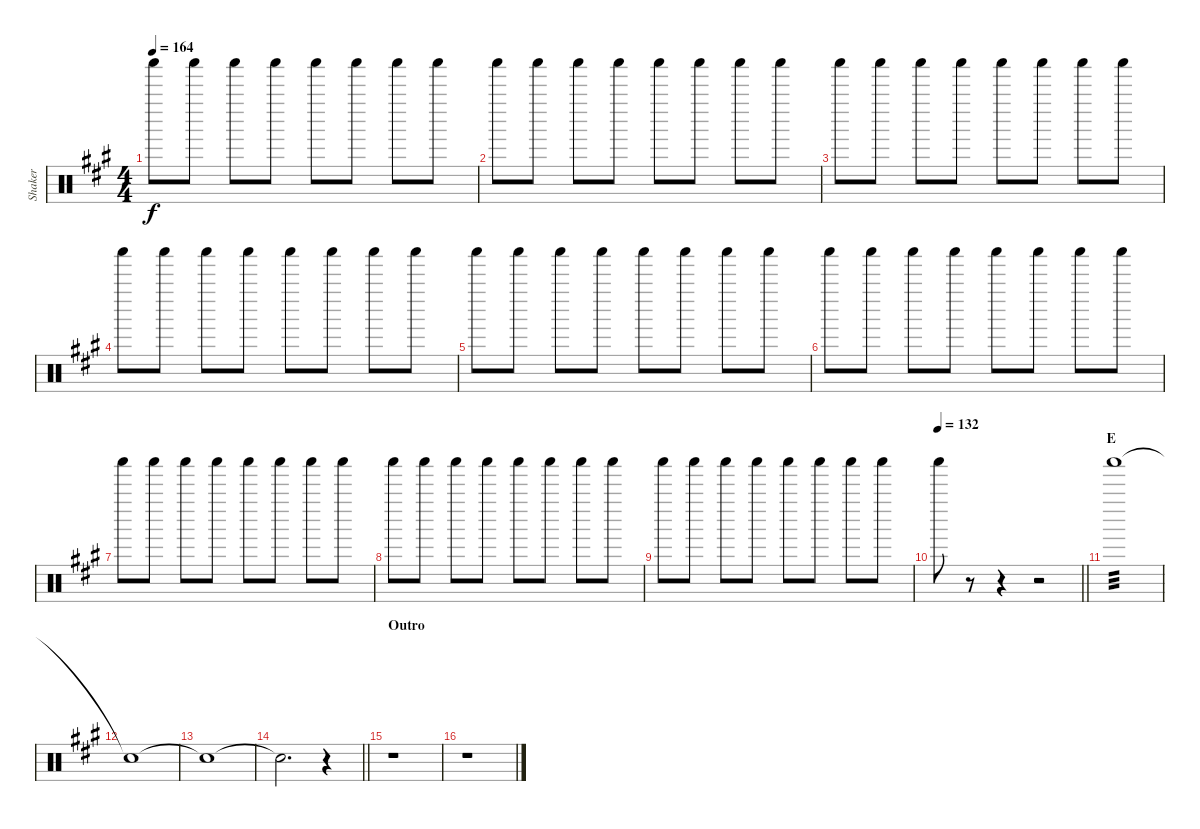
\track ("Shaker" "Shaker") {instrument percussion}
\staff {score}
\articulation defaults
\ts (4 4)
\tempo 164
\clef neutral
\ks a "Shaker (hit)".8{dy f} "Shaker (hit)".8 "Shaker (hit)".8 "Shaker (hit)".8 "Shaker (hit)".8 "Shaker (hit)".8 "Shaker (hit)".8 "Shaker (hit)".8
|
"Shaker (hit)".8 "Shaker (hit)".8 "Shaker (hit)".8 "Shaker (hit)".8 "Shaker (hit)".8 "Shaker (hit)".8 "Shaker (hit)".8 "Shaker (hit)".8 |
"Shaker (hit)".8 "Shaker (hit)".8 "Shaker (hit)".8 "Shaker (hit)".8 "Shaker (hit)".8 "Shaker (hit)".8 "Shaker (hit)".8 "Shaker (hit)".8 |
"Shaker (hit)".8 "Shaker (hit)".8 "Shaker (hit)".8 "Shaker (hit)".8 "Shaker (hit)".8 "Shaker (hit)".8 "Shaker (hit)".8 "Shaker (hit)".8 |
"Shaker (hit)".8 "Shaker (hit)".8 "Shaker (hit)".8 "Shaker (hit)".8 "Shaker (hit)".8 "Shaker (hit)".8 "Shaker (hit)".8 "Shaker (hit)".8 |
"Shaker (hit)".8 "Shaker (hit)".8 "Shaker (hit)".8 "Shaker (hit)".8 "Shaker (hit)".8 "Shaker (hit)".8 "Shaker (hit)".8 "Shaker (hit)".8 |
"Shaker (hit)".8 "Shaker (hit)".8 "Shaker (hit)".8 "Shaker (hit)".8 "Shaker (hit)".8 "Shaker (hit)".8 "Shaker (hit)".8 "Shaker (hit)".8 |
"Shaker (hit)".8 "Shaker (hit)".8 "Shaker (hit)".8 "Shaker (hit)".8 "Shaker (hit)".8 "Shaker (hit)".8 "Shaker (hit)".8 "Shaker (hit)".8 |
"Shaker (hit)".8 "Shaker (hit)".8 "Shaker (hit)".8 "Shaker (hit)".8 "Shaker (hit)".8 "Shaker (hit)".8 "Shaker (hit)".8 "Shaker (hit)".8 |
\tempo 132
\barLineRight lightlight "Shaker (hit)".8
r.8 r.4 r.2 |
\section ("" "E")
"Shaker (hit)".1{tp 3} |
"Snare (hit)"{t}.1 |
"Snare (hit)"{t}.1 |
\barLineRight lightlight "Snare (hit)"{t}.2{d}
r.4 |
\section ("" "Outro")
r.1 |
r.1
